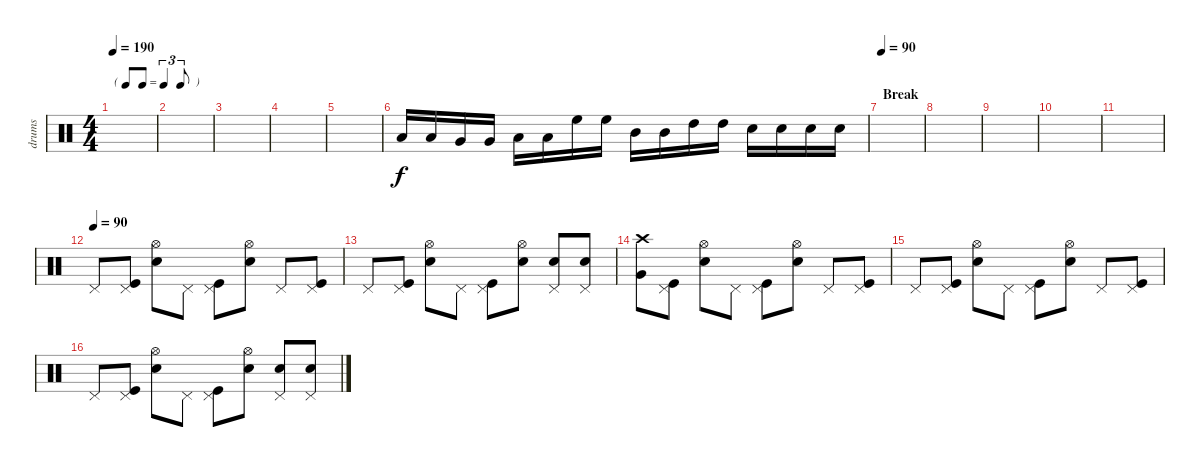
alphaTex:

\track ("drums" "drums") {instrument percussion}
\staff {score}
\articulation defaults
\ts (4 4)
\tf triplet8th
\tempo 190
\clef neutral
\ks c
|
|
|
|
|
"Low Tom (hit)".16 "Low Tom (hit)".16 "Very Low Tom (hit)".16 "Very Low Tom (hit)".16 "Low Floor Tom (hit)".16 "Low Floor Tom (hit)".16 "High Floor Tom (hit)".16 "High Floor Tom (hit)".16 "Mid Tom (hit)".16 "Mid Tom (hit)".16 "High Tom (hit)".16 "High Tom (hit)".16 "Snare (hit) 2".16 "Snare (hit) 2".16 "Snare (hit) 2".16 "Snare (hit) 2".16 |
\section ("" "Break")
\tempo 90
|
|
|
|
|
\tempo (90)
"Pedal Hi-Hat (hit)".8 ("Pedal Hi-Hat (hit)" "Kick (hit)").8 ("Hi-Hat (open)" "Snare (hit) 2").8 "Pedal Hi-Hat (hit)".8 ("Pedal Hi-Hat (hit)" "Kick (hit)").8 ("Hi-Hat (open)" "Snare (hit) 2").8 "Pedal Hi-Hat (hit)".8 ("Pedal Hi-Hat (hit)" "Kick (hit)").8 |
"Pedal Hi-Hat (hit)".8 ("Pedal Hi-Hat (hit)" "Kick (hit)").8 ("Hi-Hat (open)" "Snare (hit) 2").8 "Pedal Hi-Hat (hit)".8 ("Pedal Hi-Hat (hit)" "Kick (hit)").8 ("Hi-Hat (open)" "Snare (hit) 2").8 ("Pedal Hi-Hat (hit)" "Snare (hit) 2").8 ("Pedal Hi-Hat (hit)" "Snare (hit) 2").8 |
("Crash high (hit)" "Very Low Tom (hit)").8 ("Pedal Hi-Hat (hit)" "Kick (hit)").8 ("Hi-Hat (open)" "Snare (hit) 2").8 "Pedal Hi-Hat (hit)".8 ("Pedal Hi-Hat (hit)" "Kick (hit)").8 ("Hi-Hat (open)" "Snare (hit) 2").8 "Pedal Hi-Hat (hit)".8 ("Pedal Hi-Hat (hit)" "Kick (hit)").8 |
"Pedal Hi-Hat (hit)".8 ("Pedal Hi-Hat (hit)" "Kick (hit)").8 ("Hi-Hat (open)" "Snare (hit) 2").8 "Pedal Hi-Hat (hit)".8 ("Pedal Hi-Hat (hit)" "Kick (hit)").8 ("Hi-Hat (open)" "Snare (hit) 2").8 "Pedal Hi-Hat (hit)".8 ("Pedal Hi-Hat (hit)" "Kick (hit)").8 |
"Pedal Hi-Hat (hit)".8 ("Pedal Hi-Hat (hit)" "Kick (hit)").8 ("Hi-Hat (open)" "Snare (hit) 2").8 "Pedal Hi-Hat (hit)".8 ("Pedal Hi-Hat (hit)" "Kick (hit)").8 ("Hi-Hat (open)" "Snare (hit) 2").8 ("Pedal Hi-Hat (hit)" "Snare (hit) 2").8 ("Pedal Hi-Hat (hit)" "Snare (hit) 2").8
